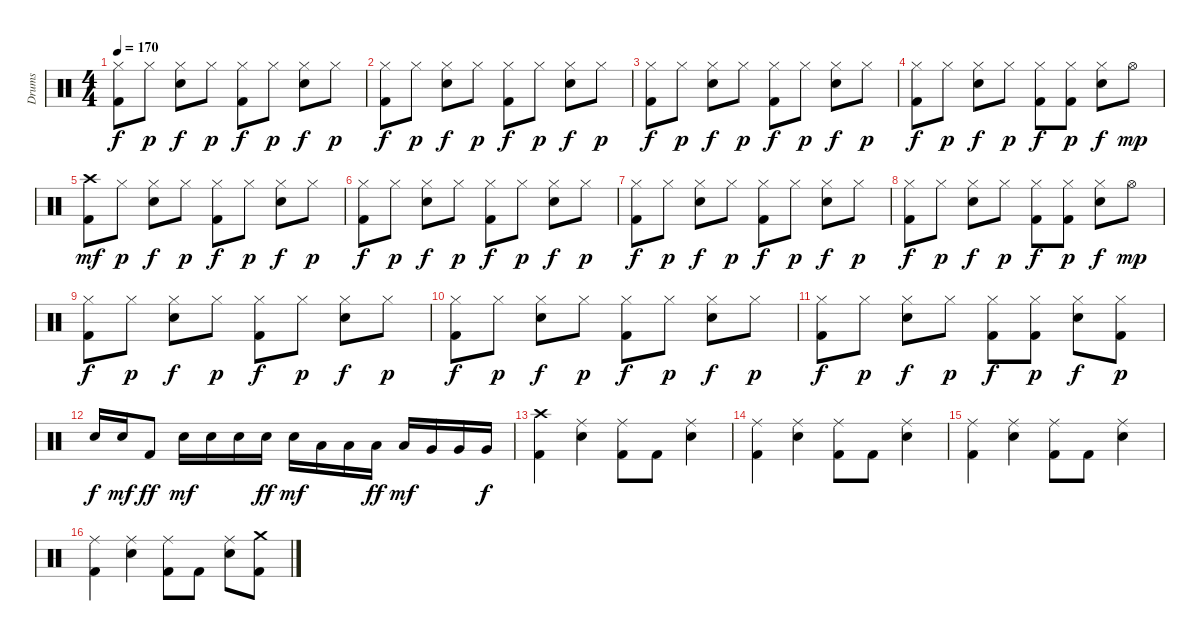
\track ("Drums" "Drums") {instrument percussion}
\staff {score}
\articulation defaults
\ts (4 4)
\tempo 170
\clef neutral
\ks c
("Hi-Hat (closed)" "Kick (hit) 2").8{dy f} "Hi-Hat (closed)".8{dy p} ("Hi-Hat (closed)" "Snare (hit) 2").8{dy f} "Hi-Hat (closed)".8{dy p} ("Hi-Hat (closed)" "Kick (hit) 2").8{dy f} "Hi-Hat (closed)".8{dy p} ("Hi-Hat (closed)" "Snare (hit) 2").8{dy f} "Hi-Hat (closed)".8{dy p} |
("Hi-Hat (closed)" "Kick (hit) 2").8{dy f} "Hi-Hat (closed)".8{dy p} ("Hi-Hat (closed)" "Snare (hit) 2").8{dy f} "Hi-Hat (closed)".8{dy p} ("Hi-Hat (closed)" "Kick (hit) 2").8{dy f} "Hi-Hat (closed)".8{dy p} ("Hi-Hat (closed)" "Snare (hit) 2").8{dy f} "Hi-Hat (closed)".8{dy p} |
("Hi-Hat (closed)" "Kick (hit) 2").8{dy f} "Hi-Hat (closed)".8{dy p} ("Hi-Hat (closed)" "Snare (hit) 2").8{dy f} "Hi-Hat (closed)".8{dy p} ("Hi-Hat (closed)" "Kick (hit) 2").8{dy f} "Hi-Hat (closed)".8{dy p} ("Hi-Hat (closed)" "Snare (hit) 2").8{dy f} "Hi-Hat (closed)".8{dy p} |
("Hi-Hat (closed)" "Kick (hit) 2").8{dy f} "Hi-Hat (closed)".8{dy p} ("Hi-Hat (closed)" "Snare (hit) 2").8{dy f} "Hi-Hat (closed)".8{dy p} ("Hi-Hat (closed)" "Kick (hit) 2").8{dy f} ("Hi-Hat (closed)" "Kick (hit) 2").8{dy p} ("Hi-Hat (closed)" "Snare (hit) 2").8{dy f} "Hi-Hat (open)".8{dy mp} |
("Crash high (hit)" "Kick (hit) 2").8{dy mf} "Hi-Hat (closed)".8{dy p} ("Hi-Hat (closed)" "Snare (hit) 2").8{dy f} "Hi-Hat (closed)".8{dy p} ("Hi-Hat (closed)" "Kick (hit) 2").8{dy f} "Hi-Hat (closed)".8{dy p} ("Hi-Hat (closed)" "Snare (hit) 2").8{dy f} "Hi-Hat (closed)".8{dy p} |
("Hi-Hat (closed)" "Kick (hit) 2").8{dy f} "Hi-Hat (closed)".8{dy p} ("Hi-Hat (closed)" "Snare (hit) 2").8{dy f} "Hi-Hat (closed)".8{dy p} ("Hi-Hat (closed)" "Kick (hit) 2").8{dy f} "Hi-Hat (closed)".8{dy p} ("Hi-Hat (closed)" "Snare (hit) 2").8{dy f} "Hi-Hat (closed)".8{dy p} |
("Hi-Hat (closed)" "Kick (hit) 2").8{dy f} "Hi-Hat (closed)".8{dy p} ("Hi-Hat (closed)" "Snare (hit) 2").8{dy f} "Hi-Hat (closed)".8{dy p} ("Hi-Hat (closed)" "Kick (hit) 2").8{dy f} "Hi-Hat (closed)".8{dy p} ("Hi-Hat (closed)" "Snare (hit) 2").8{dy f} "Hi-Hat (closed)".8{dy p} |
("Hi-Hat (closed)" "Kick (hit) 2").8{dy f} "Hi-Hat (closed)".8{dy p} ("Hi-Hat (closed)" "Snare (hit) 2").8{dy f} "Hi-Hat (closed)".8{dy p} ("Hi-Hat (closed)" "Kick (hit) 2").8{dy f} ("Hi-Hat (closed)" "Kick (hit) 2").8{dy p} ("Hi-Hat (closed)" "Snare (hit) 2").8{dy f} "Hi-Hat (open)".8{dy mp} |
("Hi-Hat (closed)" "Kick (hit) 2").8{dy f} "Hi-Hat (closed)".8{dy p} ("Hi-Hat (closed)" "Snare (hit) 2").8{dy f} "Hi-Hat (closed)".8{dy p} ("Hi-Hat (closed)" "Kick (hit) 2").8{dy f} "Hi-Hat (closed)".8{dy p} ("Hi-Hat (closed)" "Snare (hit) 2").8{dy f} "Hi-Hat (closed)".8{dy p} |
("Hi-Hat (closed)" "Kick (hit) 2").8{dy f} "Hi-Hat (closed)".8{dy p} ("Hi-Hat (closed)" "Snare (hit) 2").8{dy f} "Hi-Hat (closed)".8{dy p} ("Hi-Hat (closed)" "Kick (hit) 2").8{dy f} "Hi-Hat (closed)".8{dy p} ("Hi-Hat (closed)" "Snare (hit) 2").8{dy f} "Hi-Hat (closed)".8{dy p} |
("Hi-Hat (closed)" "Kick (hit) 2").8{dy f} "Hi-Hat (closed)".8{dy p} ("Hi-Hat (closed)" "Snare (hit) 2").8{dy f} "Hi-Hat (closed)".8{dy p} ("Hi-Hat (closed)" "Kick (hit) 2").8{dy f} ("Hi-Hat (closed)" "Kick (hit) 2").8{dy p} ("Hi-Hat (closed)" "Snare (hit) 2").8{dy f} ("Hi-Hat (closed)" "Kick (hit) 2").8{dy p} |
"Snare (hit) 2".16{dy f} "Snare (hit) 2".16{dy mf} "Kick (hit) 2".8{dy ff} "Snare (hit) 2".16{dy mf} "Snare (hit) 2".16 "Snare (hit) 2".16 "Snare (hit) 2".16{dy ff} "Snare (hit) 2".16{dy mf} "Low Floor Tom (hit)".16 "Low Floor Tom (hit)".16 "Low Floor Tom (hit)".16{dy ff} "Low Floor Tom (hit)".16{dy mf} "Very Low Tom (hit)".16 "Very Low Tom (hit)".16 "Very Low Tom (hit)".16{dy f} |
("Crash high (hit)" "Kick (hit) 2").4 ("Ride (middle)" "Snare (hit) 2").4 ("Ride (middle)" "Kick (hit) 2").8 "Kick (hit) 2".8 ("Ride (middle)" "Snare (hit) 2").4 |
("Ride (middle)" "Kick (hit) 2").4 ("Ride (middle)" "Snare (hit) 2").4 ("Ride (middle)" "Kick (hit) 2").8 "Kick (hit) 2".8 ("Ride (middle)" "Snare (hit) 2").4 |
("Ride (middle)" "Kick (hit) 2").4 ("Ride (middle)" "Snare (hit) 2").4 ("Ride (middle)" "Kick (hit) 2").8 "Kick (hit) 2".8 ("Ride (middle)" "Snare (hit) 2").4 |
("Ride (middle)" "Kick (hit) 2").4 ("Ride (middle)" "Snare (hit) 2").4 ("Ride (middle)" "Kick (hit) 2").8 "Kick (hit) 2".8 ("Ride (middle)" "Snare (hit) 2").8 ("Crash medium (hit)" "Kick (hit) 2").8
